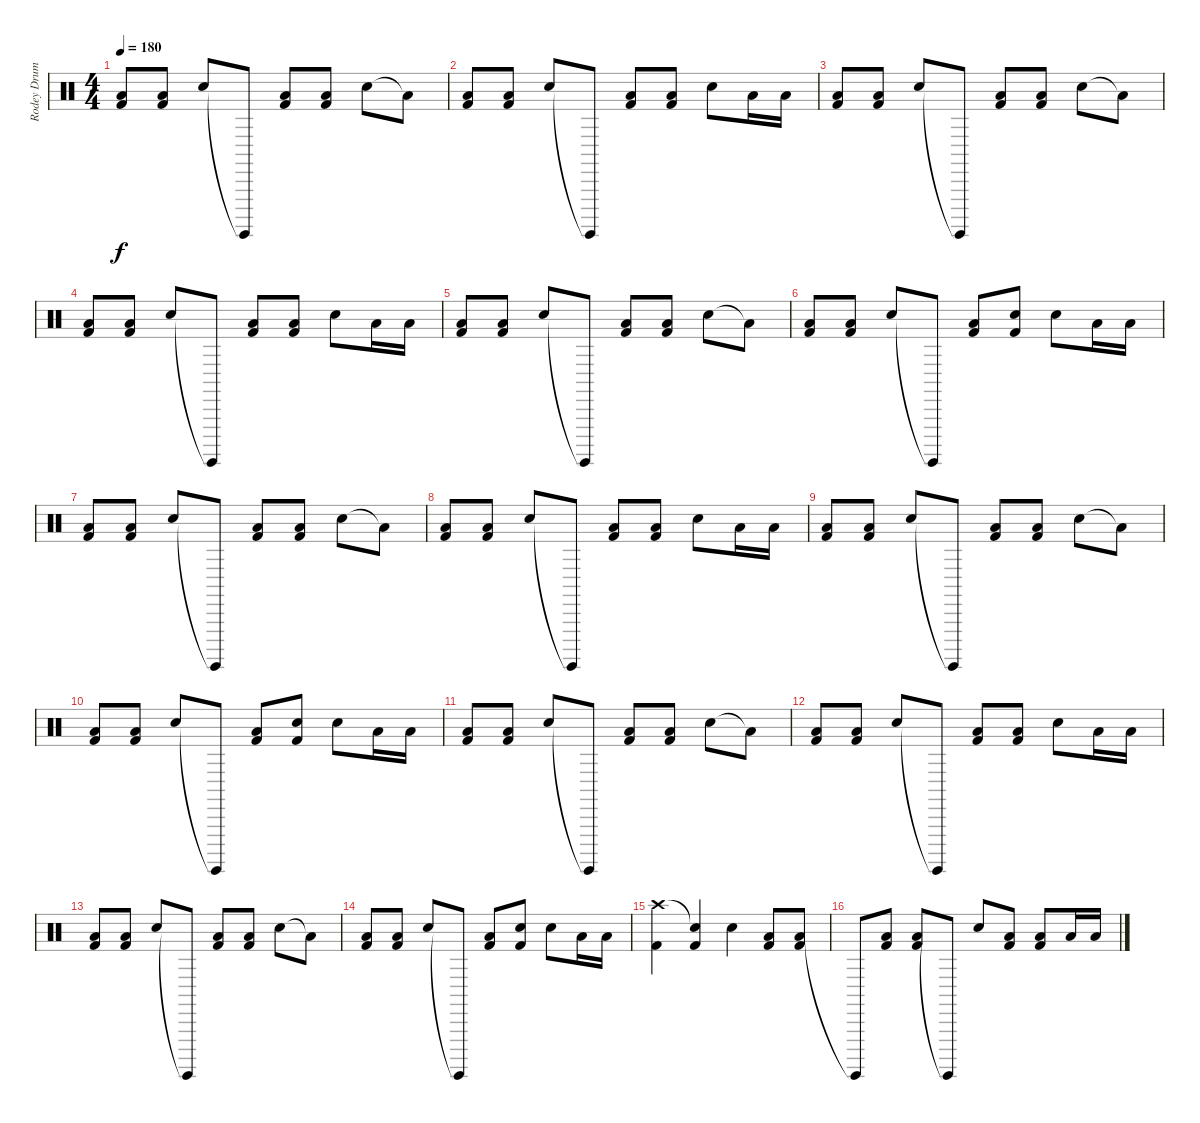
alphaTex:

\track ("Rodey Drums" "Rodey Drum") {instrument percussion}
\staff {score}
\articulation defaults
\ts (4 4)
\tempo 180
\clef neutral
\ks c
("Low Tom (hit)" "Kick (hit) 2").8{dy f} ("Low Tom (hit)" "Kick (hit) 2").8 "Electric Snare (hit)".8 "Surdo (hit)"{t}.8 ("Low Tom (hit)" "Kick (hit) 2").8 ("Low Tom (hit)" "Kick (hit) 2").8 "Electric Snare (hit)".8 "Low Floor Tom (hit)"{t}.8 |
("Low Tom (hit)" "Kick (hit) 2").8 ("Low Tom (hit)" "Kick (hit) 2").8 "Electric Snare (hit)".8 "Surdo (hit)"{t}.8 ("Low Tom (hit)" "Kick (hit) 2").8 ("Low Tom (hit)" "Kick (hit) 2").8 "Electric Snare (hit)".8 "Low Floor Tom (hit)".16 "Low Tom (hit)".16 |
("Low Tom (hit)" "Kick (hit) 2").8 ("Low Tom (hit)" "Kick (hit) 2").8 "Electric Snare (hit)".8 "Surdo (hit)"{t}.8 ("Low Tom (hit)" "Kick (hit) 2").8 ("Low Tom (hit)" "Kick (hit) 2").8 "Electric Snare (hit)".8 "Low Floor Tom (hit)"{t}.8 |
("Low Tom (hit)" "Kick (hit) 2").8 ("Low Tom (hit)" "Kick (hit) 2").8 "Electric Snare (hit)".8 "Surdo (hit)"{t}.8 ("Low Tom (hit)" "Kick (hit) 2").8 ("Low Tom (hit)" "Kick (hit) 2").8 "Electric Snare (hit)".8 "Low Floor Tom (hit)".16 "Low Tom (hit)".16 |
("Low Tom (hit)" "Kick (hit) 2").8 ("Low Tom (hit)" "Kick (hit) 2").8 "Electric Snare (hit)".8 "Surdo (hit)"{t}.8 ("Low Tom (hit)" "Kick (hit) 2").8 ("Low Tom (hit)" "Kick (hit) 2").8 "Electric Snare (hit)".8 "Low Floor Tom (hit)"{t}.8 |
("Low Tom (hit)" "Kick (hit) 2").8 ("Low Tom (hit)" "Kick (hit) 2").8 "Electric Snare (hit)".8 "Surdo (hit)"{t}.8 ("Low Tom (hit)" "Kick (hit) 2").8 ("Snare (hit)" "Kick (hit) 2").8 "Electric Snare (hit)".8 "Low Floor Tom (hit)".16 "Low Tom (hit)".16 |
("Low Tom (hit)" "Kick (hit) 2").8 ("Low Tom (hit)" "Kick (hit) 2").8 "Electric Snare (hit)".8 "Surdo (hit)"{t}.8 ("Low Tom (hit)" "Kick (hit) 2").8 ("Low Tom (hit)" "Kick (hit) 2").8 "Electric Snare (hit)".8 "Low Floor Tom (hit)"{t}.8 |
("Low Tom (hit)" "Kick (hit) 2").8 ("Low Tom (hit)" "Kick (hit) 2").8 "Electric Snare (hit)".8 "Surdo (hit)"{t}.8 ("Low Tom (hit)" "Kick (hit) 2").8 ("Low Tom (hit)" "Kick (hit) 2").8 "Electric Snare (hit)".8 "Low Floor Tom (hit)".16 "Low Tom (hit)".16 |
("Low Tom (hit)" "Kick (hit) 2").8 ("Low Tom (hit)" "Kick (hit) 2").8 "Electric Snare (hit)".8 "Surdo (hit)"{t}.8 ("Low Tom (hit)" "Kick (hit) 2").8 ("Low Tom (hit)" "Kick (hit) 2").8 "Electric Snare (hit)".8 "Low Floor Tom (hit)"{t}.8 |
("Low Tom (hit)" "Kick (hit) 2").8 ("Low Tom (hit)" "Kick (hit) 2").8 "Electric Snare (hit)".8 "Surdo (hit)"{t}.8 ("Low Tom (hit)" "Kick (hit) 2").8 ("Snare (hit)" "Kick (hit) 2").8 "Electric Snare (hit)".8 "Low Floor Tom (hit)".16 "Low Tom (hit)".16 |
("Low Tom (hit)" "Kick (hit) 2").8 ("Low Tom (hit)" "Kick (hit) 2").8 "Electric Snare (hit)".8 "Surdo (hit)"{t}.8 ("Low Tom (hit)" "Kick (hit) 2").8 ("Low Tom (hit)" "Kick (hit) 2").8 "Electric Snare (hit)".8 "Low Floor Tom (hit)"{t}.8 |
("Low Tom (hit)" "Kick (hit) 2").8 ("Low Tom (hit)" "Kick (hit) 2").8 "Electric Snare (hit)".8 "Surdo (hit)"{t}.8 ("Low Tom (hit)" "Kick (hit) 2").8 ("Low Tom (hit)" "Kick (hit) 2").8 "Electric Snare (hit)".8 "Low Floor Tom (hit)".16 "Low Tom (hit)".16 |
("Low Tom (hit)" "Kick (hit) 2").8 ("Low Tom (hit)" "Kick (hit) 2").8 "Electric Snare (hit)".8 "Surdo (hit)"{t}.8 ("Low Tom (hit)" "Kick (hit) 2").8 ("Low Tom (hit)" "Kick (hit) 2").8 "Electric Snare (hit)".8 "Low Floor Tom (hit)"{t}.8 |
("Low Tom (hit)" "Kick (hit) 2").8 ("Low Tom (hit)" "Kick (hit) 2").8 "Electric Snare (hit)".8 "Surdo (hit)"{t}.8 ("Low Tom (hit)" "Kick (hit) 2").8 ("Snare (hit)" "Kick (hit) 2").8 "Electric Snare (hit)".8 "Low Floor Tom (hit)".16 "Low Tom (hit)".16 |
("Crash high (hit)" "Kick (hit) 2").4 ("Snare (hit)"{t} "Kick (hit) 2").4 "Electric Snare (hit)".4 ("Low Tom (hit)" "Kick (hit) 2").8 ("Low Tom (hit)" "Kick (hit) 2").8 |
"Surdo (hit)"{t}.8 ("Low Tom (hit)" "Kick (hit) 2").8 ("Low Tom (hit)" "Kick (hit) 2").8 "Surdo (hit)"{t}.8 "Electric Snare (hit)".8 ("Low Tom (hit)" "Kick (hit) 2").8 ("Low Tom (hit)" "Kick (hit) 2").8 "Low Tom (hit)".16 "Low Tom (hit)".16
